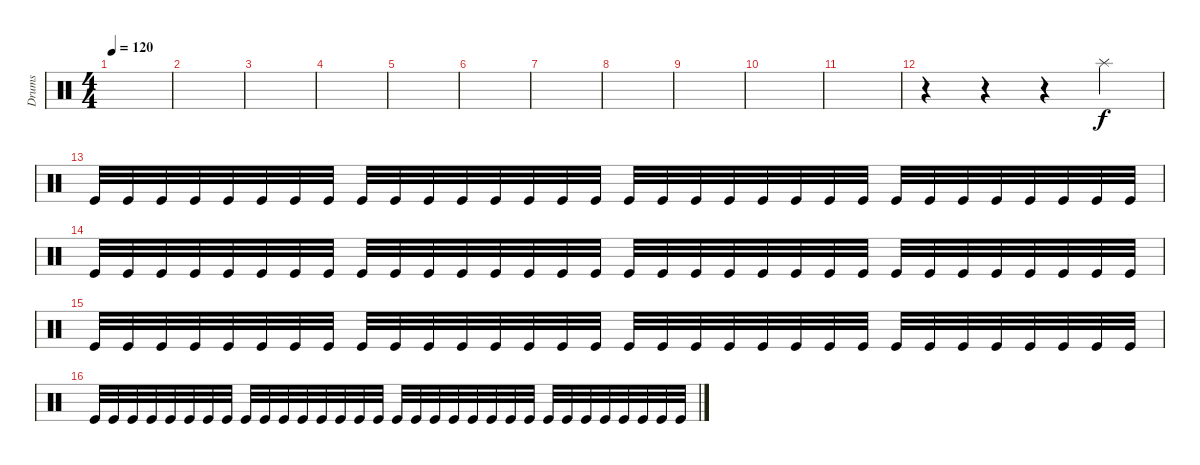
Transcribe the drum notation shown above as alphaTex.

\track ("Drums" "Drums") {instrument percussion}
\staff {score}
\articulation defaults
\ts (4 4)
\tempo 120
\clef neutral
\ks c
|
|
|
|
|
|
|
|
|
|
|
r.4 r.4 r.4 "Splash (hit)".4 |
"Kick (hit)".32 "Kick (hit)".32 "Kick (hit)".32 "Kick (hit)".32 "Kick (hit)".32 "Kick (hit)".32 "Kick (hit)".32 "Kick (hit)".32 "Kick (hit)".32 "Kick (hit)".32 "Kick (hit)".32 "Kick (hit)".32 "Kick (hit)".32 "Kick (hit)".32 "Kick (hit)".32 "Kick (hit)".32 "Kick (hit)".32 "Kick (hit)".32 "Kick (hit)".32 "Kick (hit)".32 "Kick (hit)".32 "Kick (hit)".32 "Kick (hit)".32 "Kick (hit)".32 "Kick (hit)".32 "Kick (hit)".32 "Kick (hit)".32 "Kick (hit)".32 "Kick (hit)".32 "Kick (hit)".32 "Kick (hit)".32 "Kick (hit)".32 |
"Kick (hit)".32 "Kick (hit)".32 "Kick (hit)".32 "Kick (hit)".32 "Kick (hit)".32 "Kick (hit)".32 "Kick (hit)".32 "Kick (hit)".32 "Kick (hit)".32 "Kick (hit)".32 "Kick (hit)".32 "Kick (hit)".32 "Kick (hit)".32 "Kick (hit)".32 "Kick (hit)".32 "Kick (hit)".32 "Kick (hit)".32 "Kick (hit)".32 "Kick (hit)".32 "Kick (hit)".32 "Kick (hit)".32 "Kick (hit)".32 "Kick (hit)".32 "Kick (hit)".32 "Kick (hit)".32 "Kick (hit)".32 "Kick (hit)".32 "Kick (hit)".32 "Kick (hit)".32 "Kick (hit)".32 "Kick (hit)".32 "Kick (hit)".32 |
"Kick (hit)".32 "Kick (hit)".32 "Kick (hit)".32 "Kick (hit)".32 "Kick (hit)".32 "Kick (hit)".32 "Kick (hit)".32 "Kick (hit)".32 "Kick (hit)".32 "Kick (hit)".32 "Kick (hit)".32 "Kick (hit)".32 "Kick (hit)".32 "Kick (hit)".32 "Kick (hit)".32 "Kick (hit)".32 "Kick (hit)".32 "Kick (hit)".32 "Kick (hit)".32 "Kick (hit)".32 "Kick (hit)".32 "Kick (hit)".32 "Kick (hit)".32 "Kick (hit)".32 "Kick (hit)".32 "Kick (hit)".32 "Kick (hit)".32 "Kick (hit)".32 "Kick (hit)".32 "Kick (hit)".32 "Kick (hit)".32 "Kick (hit)".32 |
"Kick (hit)".32 "Kick (hit)".32 "Kick (hit)".32 "Kick (hit)".32 "Kick (hit)".32 "Kick (hit)".32 "Kick (hit)".32 "Kick (hit)".32 "Kick (hit)".32 "Kick (hit)".32 "Kick (hit)".32 "Kick (hit)".32 "Kick (hit)".32 "Kick (hit)".32 "Kick (hit)".32 "Kick (hit)".32 "Kick (hit)".32 "Kick (hit)".32 "Kick (hit)".32 "Kick (hit)".32 "Kick (hit)".32 "Kick (hit)".32 "Kick (hit)".32 "Kick (hit)".32 "Kick (hit)".32 "Kick (hit)".32 "Kick (hit)".32 "Kick (hit)".32 "Kick (hit)".32 "Kick (hit)".32 "Kick (hit)".32 "Kick (hit)".32
